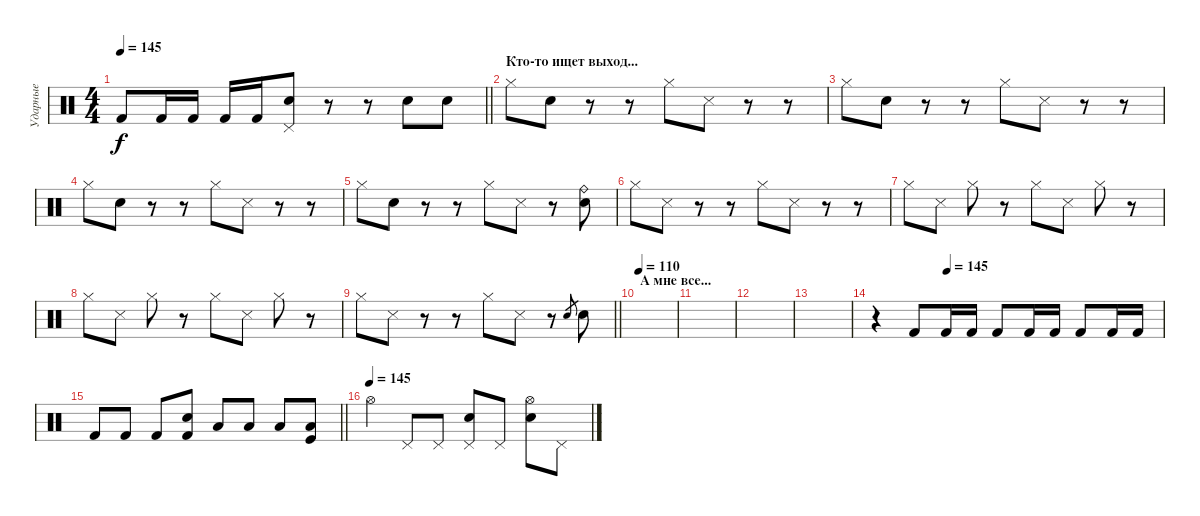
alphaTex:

\track ("Ударные" "Ударные") {instrument percussion}
\staff {score}
\articulation defaults
\ts (4 4)
\tempo 145
\clef neutral
\barLineRight lightlight
\ks c "Kick (hit) 2".8{dy f} "Kick (hit) 2".16 "Kick (hit) 2".16 "Kick (hit) 2".16 "Kick (hit) 2".16
("Pedal Hi-Hat (hit)" "Electric Snare (hit)").8 r.8 r.8 "Electric Snare (hit)".8 "Electric Snare (hit)".8 |
\section ("" "Кто-то ищет выход...")
"Hi-Hat (closed)".8 "Metronome (bell)".8 r.8 r.8 "Hi-Hat (closed)".8 "Snare (side stick) 3".8 r.8 r.8 |
"Hi-Hat (closed)".8 "Metronome (bell)".8 r.8 r.8 "Hi-Hat (closed)".8 "Snare (side stick) 3".8 r.8 r.8 |
"Hi-Hat (closed)".8 "Metronome (bell)".8 r.8 r.8 "Hi-Hat (closed)".8 "Snare (side stick) 3".8 r.8 r.8 |
"Hi-Hat (closed)".8 "Metronome (bell)".8 r.8 r.8 "Hi-Hat (closed)".8 "Snare (side stick) 3".8 r.8 ("Metronome (bell)" "Ride (bell)").8 |
"Hi-Hat (closed)".8 "Snare (side stick) 3".8 r.8 r.8 "Hi-Hat (closed)".8 "Snare (side stick) 3".8 r.8 r.8 |
"Hi-Hat (closed)".8 "Snare (side stick) 3".8 "Hi-Hat (closed)".8 r.8 "Hi-Hat (closed)".8 "Snare (side stick) 3".8 "Hi-Hat (closed)".8 r.8 |
"Hi-Hat (closed)".8 "Snare (side stick) 3".8 "Hi-Hat (closed)".8 r.8 "Hi-Hat (closed)".8 "Snare (side stick) 3".8 "Hi-Hat (closed)".8 r.8 |
\barLineRight lightlight "Hi-Hat (closed)".8 "Snare (side stick) 3".8
r.8 r.8 "Hi-Hat (closed)".8 "Snare (side stick) 3".8 r.8 "Snare (hit) 2".8{gr} "Electric Snare (hit)".8 |
\section ("" "А мне все...")
\tempo 110
|
|
|
|
\tempo (145 0.25)
r.4 "Kick (hit) 2".8 "Kick (hit) 2".16 "Kick (hit) 2".16 "Kick (hit) 2".8 "Kick (hit) 2".16 "Kick (hit) 2".16 "Kick (hit) 2".8 "Kick (hit) 2".16 "Kick (hit) 2".16 |
\barLineRight lightlight "Kick (hit) 2".8 "Kick (hit) 2".8 "Kick (hit) 2".8
("Electric Snare (hit)" "Kick (hit) 2").8 "Low Tom (hit)".8 "Low Tom (hit)".8 "Low Tom (hit)".8 ("Low Tom (hit)" "Kick (hit)").8 |
\tempo (145)
"Hi-Hat (open)".4 "Pedal Hi-Hat (hit)".8 "Pedal Hi-Hat (hit)".8 ("Pedal Hi-Hat (hit)" "Electric Snare (hit)").8 "Pedal Hi-Hat (hit)".8 ("Hi-Hat (open)" "Electric Snare (hit)").8 "Pedal Hi-Hat (hit)".8
